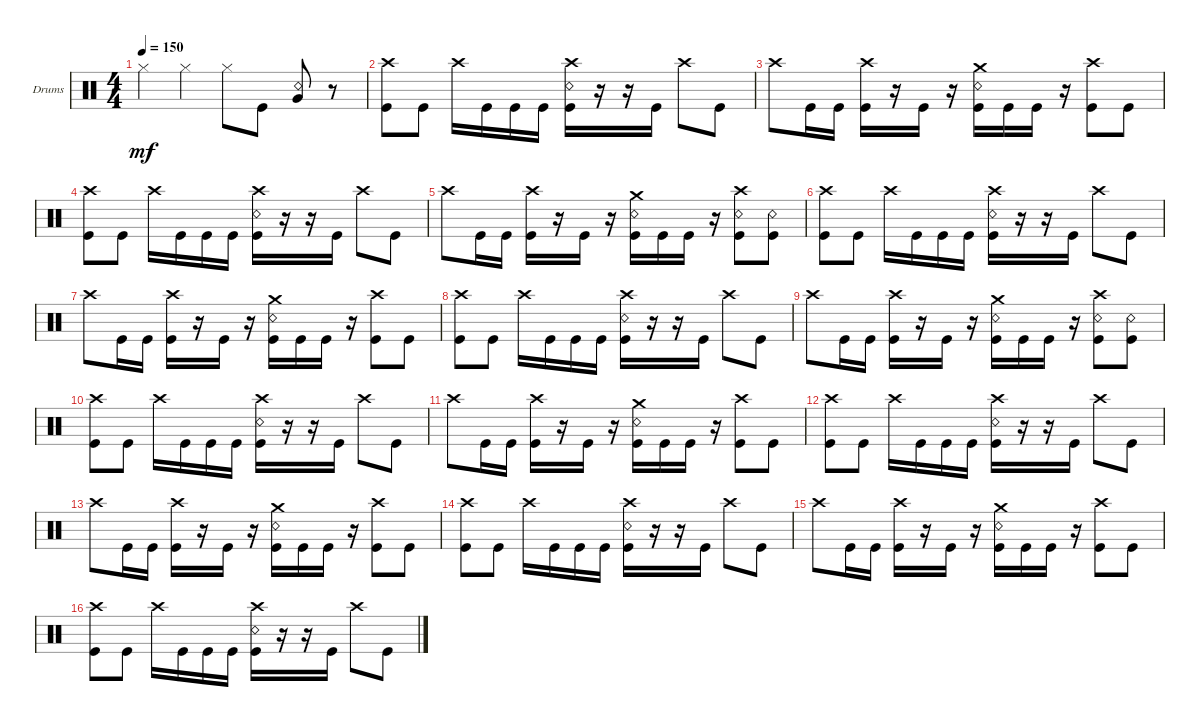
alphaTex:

\bracketExtendMode groupsimilarinstruments
\firstSystemTrackNameOrientation horizontal
\otherSystemsTrackNameOrientation horizontal
\track ("Drumkit" "Drums") {instrument percussion}
\staff {score}
\articulation defaults
\ts (4 4)
\tempo 150
\clef neutral
\ks c "Hi-Hat (closed)".4{dy mf} "Hi-Hat (closed)".4 "Hi-Hat (closed)".8 "Kick (hit)".8
("Snare (rim shot)" "Very Low Tom (hit)").8 r.8 |
("Kick (hit)" "Crash high (hit)").8 "Kick (hit)".8 "Crash high (hit)".16 "Kick (hit)".16 "Kick (hit)".16 "Kick (hit)".16 ("Kick (hit)" "Snare (rim shot)" "Crash high (hit)").16 r.16 r.16 "Kick (hit)".16 "Crash high (hit)".8 "Kick (hit)".8 |
"Crash high (hit)".8 "Kick (hit)".16 "Kick (hit)".16 ("Kick (hit)" "Crash high (hit)").16 r.16 "Kick (hit)".16 r.16 ("Kick (hit)" "Crash medium (hit)" "Snare (rim shot)").16 "Kick (hit)".16 "Kick (hit)".16 r.16 ("Kick (hit)" "Crash high (hit)").8 "Kick (hit)".8 |
("Kick (hit)" "Crash high (hit)").8 "Kick (hit)".8 "Crash high (hit)".16 "Kick (hit)".16 "Kick (hit)".16 "Kick (hit)".16 ("Kick (hit)" "Snare (rim shot)" "Crash high (hit)").16 r.16 r.16 "Kick (hit)".16 "Crash high (hit)".8 "Kick (hit)".8 |
"Crash high (hit)".8 "Kick (hit)".16 "Kick (hit)".16 ("Kick (hit)" "Crash high (hit)").16 r.16 "Kick (hit)".16 r.16 ("Kick (hit)" "Crash medium (hit)" "Snare (rim shot)").16 "Kick (hit)".16 "Kick (hit)".16 r.16 ("Kick (hit)" "Crash high (hit)" "Snare (rim shot)").8 ("Kick (hit)" "Snare (rim shot)").8 |
("Kick (hit)" "Crash high (hit)").8 "Kick (hit)".8 "Crash high (hit)".16 "Kick (hit)".16 "Kick (hit)".16 "Kick (hit)".16 ("Kick (hit)" "Snare (rim shot)" "Crash high (hit)").16 r.16 r.16 "Kick (hit)".16 "Crash high (hit)".8 "Kick (hit)".8 |
"Crash high (hit)".8 "Kick (hit)".16 "Kick (hit)".16 ("Kick (hit)" "Crash high (hit)").16 r.16 "Kick (hit)".16 r.16 ("Kick (hit)" "Crash medium (hit)" "Snare (rim shot)").16 "Kick (hit)".16 "Kick (hit)".16 r.16 ("Kick (hit)" "Crash high (hit)").8 "Kick (hit)".8 |
("Kick (hit)" "Crash high (hit)").8 "Kick (hit)".8 "Crash high (hit)".16 "Kick (hit)".16 "Kick (hit)".16 "Kick (hit)".16 ("Kick (hit)" "Snare (rim shot)" "Crash high (hit)").16 r.16 r.16 "Kick (hit)".16 "Crash high (hit)".8 "Kick (hit)".8 |
"Crash high (hit)".8 "Kick (hit)".16 "Kick (hit)".16 ("Kick (hit)" "Crash high (hit)").16 r.16 "Kick (hit)".16 r.16 ("Kick (hit)" "Crash medium (hit)" "Snare (rim shot)").16 "Kick (hit)".16 "Kick (hit)".16 r.16 ("Kick (hit)" "Crash high (hit)" "Snare (rim shot)").8 ("Kick (hit)" "Snare (rim shot)").8 |
("Kick (hit)" "Crash high (hit)").8 "Kick (hit)".8 "Crash high (hit)".16 "Kick (hit)".16 "Kick (hit)".16 "Kick (hit)".16 ("Kick (hit)" "Snare (rim shot)" "Crash high (hit)").16 r.16 r.16 "Kick (hit)".16 "Crash high (hit)".8 "Kick (hit)".8 |
"Crash high (hit)".8 "Kick (hit)".16 "Kick (hit)".16 ("Kick (hit)" "Crash high (hit)").16 r.16 "Kick (hit)".16 r.16 ("Kick (hit)" "Crash medium (hit)" "Snare (rim shot)").16 "Kick (hit)".16 "Kick (hit)".16 r.16 ("Kick (hit)" "Crash high (hit)").8 "Kick (hit)".8 |
("Kick (hit)" "Crash high (hit)").8 "Kick (hit)".8 "Crash high (hit)".16 "Kick (hit)".16 "Kick (hit)".16 "Kick (hit)".16 ("Kick (hit)" "Snare (rim shot)" "Crash high (hit)").16 r.16 r.16 "Kick (hit)".16 "Crash high (hit)".8 "Kick (hit)".8 |
"Crash high (hit)".8 "Kick (hit)".16 "Kick (hit)".16 ("Kick (hit)" "Crash high (hit)").16 r.16 "Kick (hit)".16 r.16 ("Kick (hit)" "Crash medium (hit)" "Snare (rim shot)").16 "Kick (hit)".16 "Kick (hit)".16 r.16 ("Kick (hit)" "Crash high (hit)").8 "Kick (hit)".8 |
("Kick (hit)" "Crash high (hit)").8 "Kick (hit)".8 "Crash high (hit)".16 "Kick (hit)".16 "Kick (hit)".16 "Kick (hit)".16 ("Kick (hit)" "Snare (rim shot)" "Crash high (hit)").16 r.16 r.16 "Kick (hit)".16 "Crash high (hit)".8 "Kick (hit)".8 |
"Crash high (hit)".8 "Kick (hit)".16 "Kick (hit)".16 ("Kick (hit)" "Crash high (hit)").16 r.16 "Kick (hit)".16 r.16 ("Kick (hit)" "Crash medium (hit)" "Snare (rim shot)").16 "Kick (hit)".16 "Kick (hit)".16 r.16 ("Kick (hit)" "Crash high (hit)").8 "Kick (hit)".8 |
("Kick (hit)" "Crash high (hit)").8 "Kick (hit)".8 "Crash high (hit)".16 "Kick (hit)".16 "Kick (hit)".16 "Kick (hit)".16 ("Kick (hit)" "Snare (rim shot)" "Crash high (hit)").16 r.16 r.16 "Kick (hit)".16 "Crash high (hit)".8 "Kick (hit)".8
